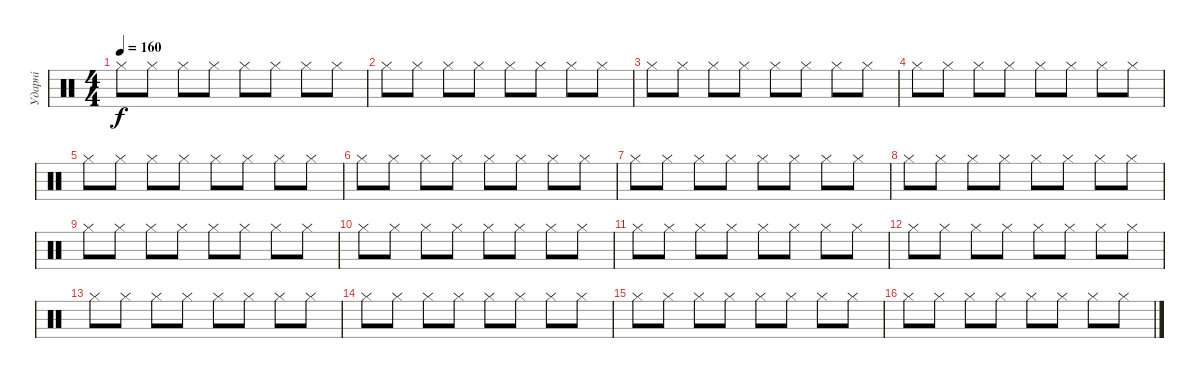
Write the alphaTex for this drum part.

\track ("Ударні" "Ударні") {instrument percussion}
\staff {score}
\articulation defaults
\ts (4 4)
\tempo 160
\clef neutral
\ks c "Hi-Hat (closed)".8{dy f} "Hi-Hat (closed)".8 "Hi-Hat (closed)".8 "Hi-Hat (closed)".8 "Hi-Hat (closed)".8 "Hi-Hat (closed)".8 "Hi-Hat (closed)".8 "Hi-Hat (closed)".8
|
"Hi-Hat (closed)".8 "Hi-Hat (closed)".8 "Hi-Hat (closed)".8 "Hi-Hat (closed)".8 "Hi-Hat (closed)".8 "Hi-Hat (closed)".8 "Hi-Hat (closed)".8 "Hi-Hat (closed)".8 |
"Hi-Hat (closed)".8 "Hi-Hat (closed)".8 "Hi-Hat (closed)".8 "Hi-Hat (closed)".8 "Hi-Hat (closed)".8 "Hi-Hat (closed)".8 "Hi-Hat (closed)".8 "Hi-Hat (closed)".8 |
"Hi-Hat (closed)".8 "Hi-Hat (closed)".8 "Hi-Hat (closed)".8 "Hi-Hat (closed)".8 "Hi-Hat (closed)".8 "Hi-Hat (closed)".8 "Hi-Hat (closed)".8 "Hi-Hat (closed)".8 |
"Hi-Hat (closed)".8 "Hi-Hat (closed)".8 "Hi-Hat (closed)".8 "Hi-Hat (closed)".8 "Hi-Hat (closed)".8 "Hi-Hat (closed)".8 "Hi-Hat (closed)".8 "Hi-Hat (closed)".8 |
"Hi-Hat (closed)".8 "Hi-Hat (closed)".8 "Hi-Hat (closed)".8 "Hi-Hat (closed)".8 "Hi-Hat (closed)".8 "Hi-Hat (closed)".8 "Hi-Hat (closed)".8 "Hi-Hat (closed)".8 |
"Hi-Hat (closed)".8 "Hi-Hat (closed)".8 "Hi-Hat (closed)".8 "Hi-Hat (closed)".8 "Hi-Hat (closed)".8 "Hi-Hat (closed)".8 "Hi-Hat (closed)".8 "Hi-Hat (closed)".8 |
"Hi-Hat (closed)".8 "Hi-Hat (closed)".8 "Hi-Hat (closed)".8 "Hi-Hat (closed)".8 "Hi-Hat (closed)".8 "Hi-Hat (closed)".8 "Hi-Hat (closed)".8 "Hi-Hat (closed)".8 |
"Hi-Hat (closed)".8 "Hi-Hat (closed)".8 "Hi-Hat (closed)".8 "Hi-Hat (closed)".8 "Hi-Hat (closed)".8 "Hi-Hat (closed)".8 "Hi-Hat (closed)".8 "Hi-Hat (closed)".8 |
"Hi-Hat (closed)".8 "Hi-Hat (closed)".8 "Hi-Hat (closed)".8 "Hi-Hat (closed)".8 "Hi-Hat (closed)".8 "Hi-Hat (closed)".8 "Hi-Hat (closed)".8 "Hi-Hat (closed)".8 |
"Hi-Hat (closed)".8 "Hi-Hat (closed)".8 "Hi-Hat (closed)".8 "Hi-Hat (closed)".8 "Hi-Hat (closed)".8 "Hi-Hat (closed)".8 "Hi-Hat (closed)".8 "Hi-Hat (closed)".8 |
"Hi-Hat (closed)".8 "Hi-Hat (closed)".8 "Hi-Hat (closed)".8 "Hi-Hat (closed)".8 "Hi-Hat (closed)".8 "Hi-Hat (closed)".8 "Hi-Hat (closed)".8 "Hi-Hat (closed)".8 |
"Hi-Hat (closed)".8 "Hi-Hat (closed)".8 "Hi-Hat (closed)".8 "Hi-Hat (closed)".8 "Hi-Hat (closed)".8 "Hi-Hat (closed)".8 "Hi-Hat (closed)".8 "Hi-Hat (closed)".8 |
"Hi-Hat (closed)".8 "Hi-Hat (closed)".8 "Hi-Hat (closed)".8 "Hi-Hat (closed)".8 "Hi-Hat (closed)".8 "Hi-Hat (closed)".8 "Hi-Hat (closed)".8 "Hi-Hat (closed)".8 |
"Hi-Hat (closed)".8 "Hi-Hat (closed)".8 "Hi-Hat (closed)".8 "Hi-Hat (closed)".8 "Hi-Hat (closed)".8 "Hi-Hat (closed)".8 "Hi-Hat (closed)".8 "Hi-Hat (closed)".8 |
"Hi-Hat (closed)".8 "Hi-Hat (closed)".8 "Hi-Hat (closed)".8 "Hi-Hat (closed)".8 "Hi-Hat (closed)".8 "Hi-Hat (closed)".8 "Hi-Hat (closed)".8 "Hi-Hat (closed)".8
